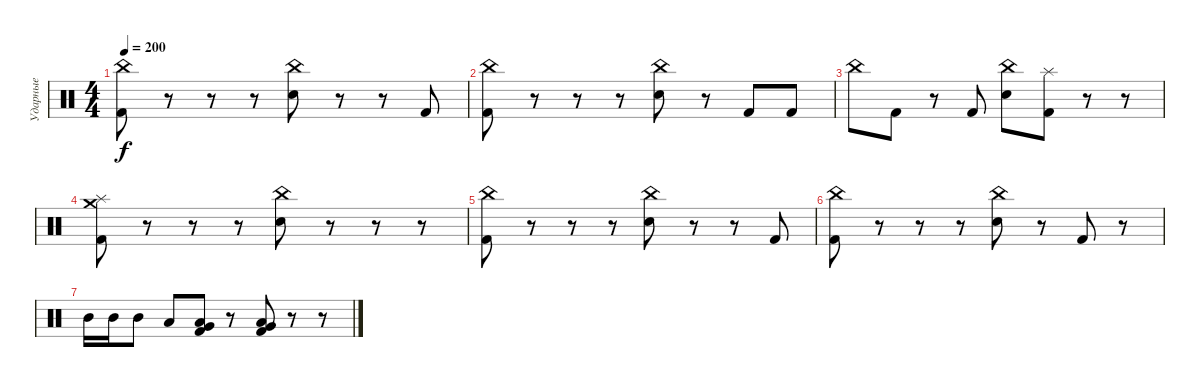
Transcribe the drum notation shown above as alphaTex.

\track ("Ударные" "Ударные") {instrument percussion}
\staff {score}
\articulation defaults
\ts (4 4)
\tempo 200
\clef neutral
\ks c
("Kick (hit) 2" "China (hit)").8{dy f} r.8 r.8 r.8 ("Electric Snare (hit)" "China (hit)").8 r.8 r.8 "Kick (hit) 2".8 |
("Kick (hit) 2" "China (hit)").8 r.8 r.8 r.8 ("Electric Snare (hit)" "China (hit)").8 r.8 "Kick (hit) 2".8 "Kick (hit) 2".8 |
"China (hit)".8 "Kick (hit) 2".8 r.8 "Kick (hit) 2".8 ("Electric Snare (hit)" "China (hit)").8 ("Kick (hit) 2" "Splash (hit)").8 r.8 r.8 |
("Kick (hit) 2" "Splash (hit)" "Crash medium (hit)").8 r.8 r.8 r.8 ("Electric Snare (hit)" "China (hit)").8 r.8 r.8 r.8 |
("Kick (hit) 2" "China (hit)").8 r.8 r.8 r.8 ("Electric Snare (hit)" "China (hit)").8 r.8 r.8 "Kick (hit) 2".8 |
("Kick (hit) 2" "China (hit)").8 r.8 r.8 r.8 ("Electric Snare (hit)" "China (hit)").8 r.8 "Kick (hit) 2".8 r.8 |
"Mid Tom (hit)".16 "Mid Tom (hit)".16 "Mid Tom (hit)".8 "Low Tom (hit)".8 ("Kick (hit) 2" "Low Floor Tom (hit)" "Very Low Tom (hit)").8 r.8 ("Kick (hit) 2" "Low Floor Tom (hit)" "Very Low Tom (hit)").8 r.8 r.8
